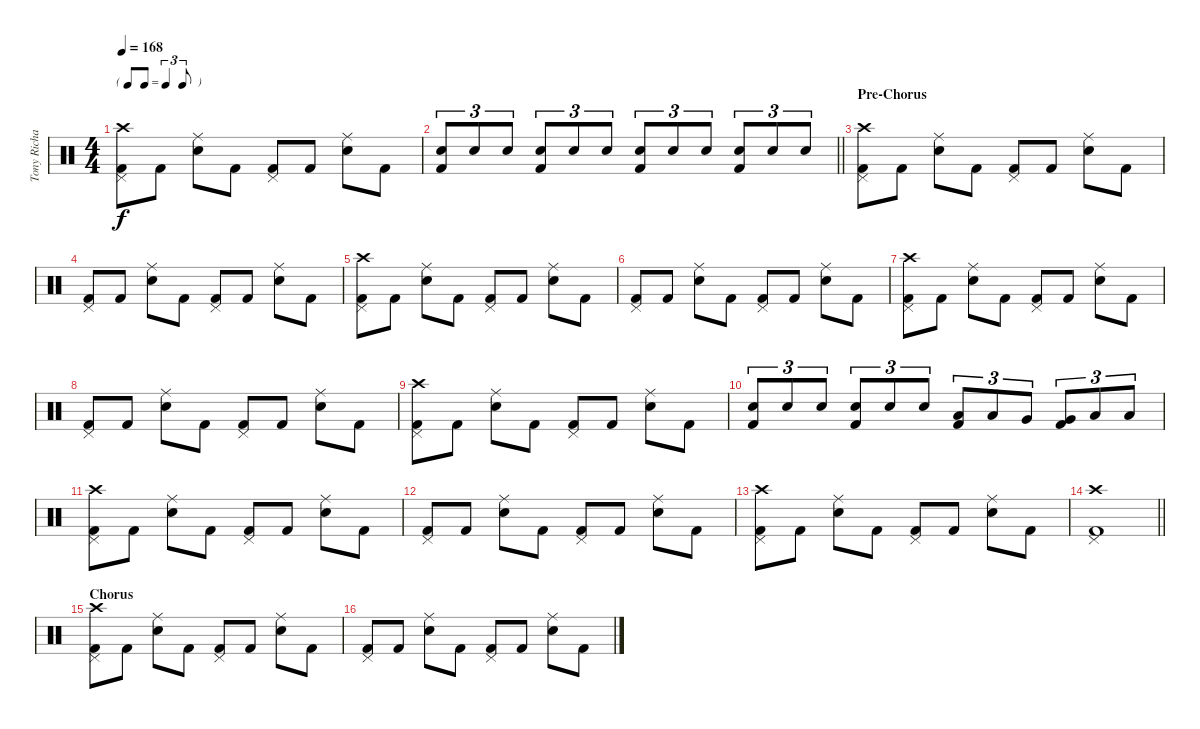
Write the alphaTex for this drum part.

\track ("Tony Richards (drums)" "Tony Richa") {instrument percussion}
\staff {score}
\articulation defaults
\ts (4 4)
\tf triplet8th
\tempo 168
\clef neutral
\ks c
("Crash high (hit)" "Pedal Hi-Hat (hit)" "Kick (hit) 2").8{dy f} "Kick (hit) 2".8 ("Ride (middle)" "Snare (hit) 2").8 "Kick (hit) 2".8 ("Pedal Hi-Hat (hit)" "Kick (hit) 2").8 "Kick (hit) 2".8 ("Ride (middle)" "Snare (hit) 2").8 "Kick (hit) 2".8 |
\barLineRight lightlight
("Snare (hit) 2" "Kick (hit) 2").8{tu (3 2)} "Snare (hit) 2".8{tu (3 2)} "Snare (hit) 2".8{tu (3 2)} ("Snare (hit) 2" "Kick (hit) 2").8{tu (3 2)} "Snare (hit) 2".8{tu (3 2)} "Snare (hit) 2".8{tu (3 2)} ("Snare (hit) 2" "Kick (hit) 2").8{tu (3 2)} "Snare (hit) 2".8{tu (3 2)} "Snare (hit) 2".8{tu (3 2)} ("Snare (hit) 2" "Kick (hit) 2").8{tu (3 2)} "Snare (hit) 2".8{tu (3 2)} "Snare (hit) 2".8{tu (3 2)} |
\section ("" "Pre-Chorus")
("Crash high (hit)" "Pedal Hi-Hat (hit)" "Kick (hit) 2").8 "Kick (hit) 2".8 ("Ride (middle)" "Snare (hit) 2").8 "Kick (hit) 2".8 ("Pedal Hi-Hat (hit)" "Kick (hit) 2").8 "Kick (hit) 2".8 ("Ride (middle)" "Snare (hit) 2").8 "Kick (hit) 2".8 |
("Pedal Hi-Hat (hit)" "Kick (hit) 2").8 "Kick (hit) 2".8 ("Ride (middle)" "Snare (hit) 2").8 "Kick (hit) 2".8 ("Pedal Hi-Hat (hit)" "Kick (hit) 2").8 "Kick (hit) 2".8 ("Ride (middle)" "Snare (hit) 2").8 "Kick (hit) 2".8 |
("Crash high (hit)" "Pedal Hi-Hat (hit)" "Kick (hit) 2").8 "Kick (hit) 2".8 ("Ride (middle)" "Snare (hit) 2").8 "Kick (hit) 2".8 ("Pedal Hi-Hat (hit)" "Kick (hit) 2").8 "Kick (hit) 2".8 ("Ride (middle)" "Snare (hit) 2").8 "Kick (hit) 2".8 |
("Pedal Hi-Hat (hit)" "Kick (hit) 2").8 "Kick (hit) 2".8 ("Ride (middle)" "Snare (hit) 2").8 "Kick (hit) 2".8 ("Pedal Hi-Hat (hit)" "Kick (hit) 2").8 "Kick (hit) 2".8 ("Ride (middle)" "Snare (hit) 2").8 "Kick (hit) 2".8 |
("Crash high (hit)" "Pedal Hi-Hat (hit)" "Kick (hit) 2").8 "Kick (hit) 2".8 ("Ride (middle)" "Snare (hit) 2").8 "Kick (hit) 2".8 ("Pedal Hi-Hat (hit)" "Kick (hit) 2").8 "Kick (hit) 2".8 ("Ride (middle)" "Snare (hit) 2").8 "Kick (hit) 2".8 |
("Pedal Hi-Hat (hit)" "Kick (hit) 2").8 "Kick (hit) 2".8 ("Ride (middle)" "Snare (hit) 2").8 "Kick (hit) 2".8 ("Pedal Hi-Hat (hit)" "Kick (hit) 2").8 "Kick (hit) 2".8 ("Ride (middle)" "Snare (hit) 2").8 "Kick (hit) 2".8 |
("Crash high (hit)" "Pedal Hi-Hat (hit)" "Kick (hit) 2").8 "Kick (hit) 2".8 ("Ride (middle)" "Snare (hit) 2").8 "Kick (hit) 2".8 ("Pedal Hi-Hat (hit)" "Kick (hit) 2").8 "Kick (hit) 2".8 ("Ride (middle)" "Snare (hit) 2").8 "Kick (hit) 2".8 |
("Snare (hit) 2" "Kick (hit) 2").8{tu (3 2)} "Snare (hit) 2".8{tu (3 2)} "Snare (hit) 2".8{tu (3 2)} ("Snare (hit) 2" "Kick (hit) 2").8{tu (3 2)} "Snare (hit) 2".8{tu (3 2)} "Snare (hit) 2".8{tu (3 2)} ("Low Tom (hit)" "Kick (hit) 2").8{tu (3 2)} "Low Tom (hit)".8{tu (3 2)} "Very Low Tom (hit)".8{tu (3 2)} ("Very Low Tom (hit)" "Kick (hit) 2").8{tu (3 2)} "Low Floor Tom (hit)".8{tu (3 2)} "Low Floor Tom (hit)".8{tu (3 2)} |
("Crash high (hit)" "Pedal Hi-Hat (hit)" "Kick (hit) 2").8 "Kick (hit) 2".8 ("Ride (middle)" "Snare (hit) 2").8 "Kick (hit) 2".8 ("Pedal Hi-Hat (hit)" "Kick (hit) 2").8 "Kick (hit) 2".8 ("Ride (middle)" "Snare (hit) 2").8 "Kick (hit) 2".8 |
("Pedal Hi-Hat (hit)" "Kick (hit) 2").8 "Kick (hit) 2".8 ("Ride (middle)" "Snare (hit) 2").8 "Kick (hit) 2".8 ("Pedal Hi-Hat (hit)" "Kick (hit) 2").8 "Kick (hit) 2".8 ("Ride (middle)" "Snare (hit) 2").8 "Kick (hit) 2".8 |
("Crash high (hit)" "Pedal Hi-Hat (hit)" "Kick (hit) 2").8 "Kick (hit) 2".8 ("Ride (middle)" "Snare (hit) 2").8 "Kick (hit) 2".8 ("Pedal Hi-Hat (hit)" "Kick (hit) 2").8 "Kick (hit) 2".8 ("Ride (middle)" "Snare (hit) 2").8 "Kick (hit) 2".8 |
\barLineRight lightlight
("Crash high (hit)" "Pedal Hi-Hat (hit)" "Kick (hit) 2").1 |
\section ("" "Chorus")
("Crash high (hit)" "Pedal Hi-Hat (hit)" "Kick (hit) 2").8 "Kick (hit) 2".8 ("Ride (middle)" "Snare (hit) 2").8 "Kick (hit) 2".8 ("Pedal Hi-Hat (hit)" "Kick (hit) 2").8 "Kick (hit) 2".8 ("Ride (middle)" "Snare (hit) 2").8 "Kick (hit) 2".8 |
("Pedal Hi-Hat (hit)" "Kick (hit) 2").8 "Kick (hit) 2".8 ("Ride (middle)" "Snare (hit) 2").8 "Kick (hit) 2".8 ("Pedal Hi-Hat (hit)" "Kick (hit) 2").8 "Kick (hit) 2".8 ("Ride (middle)" "Snare (hit) 2").8 "Kick (hit) 2".8
